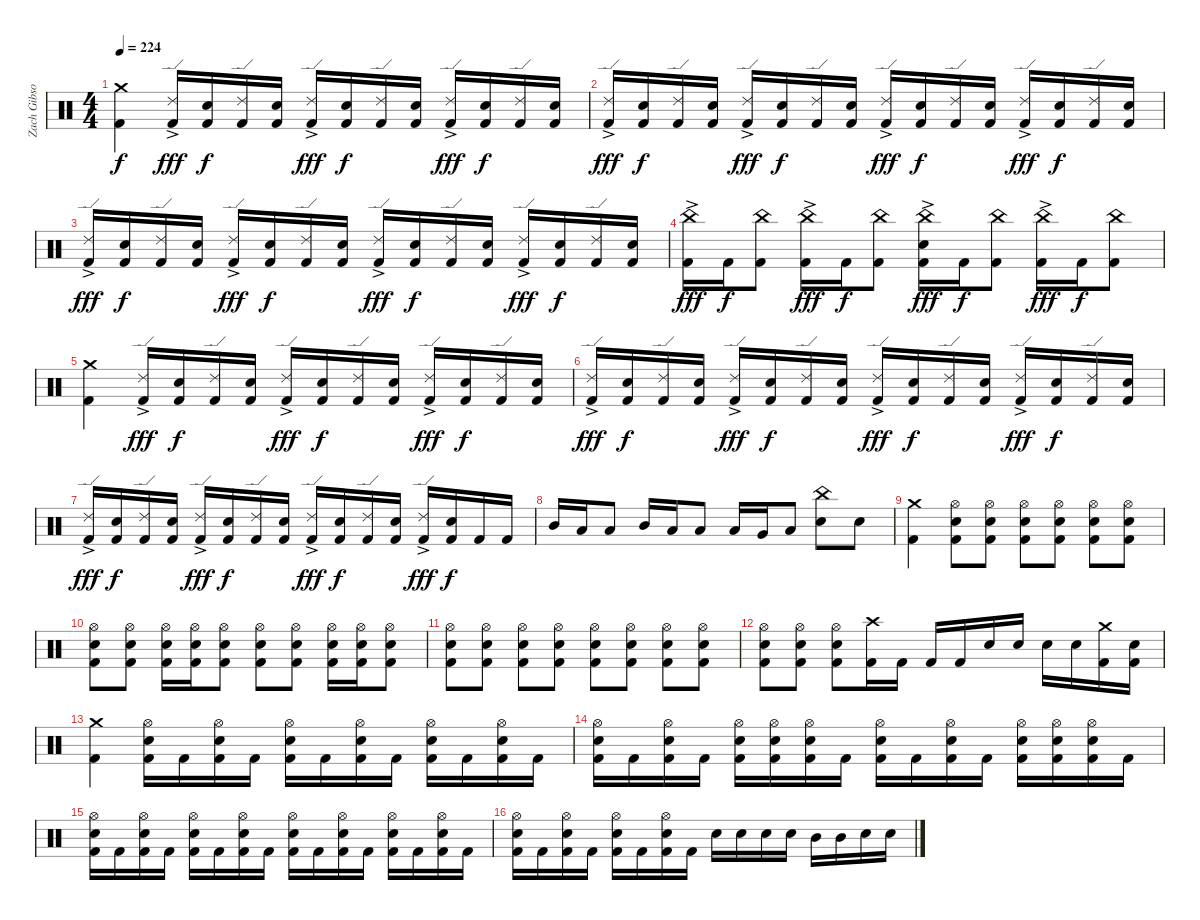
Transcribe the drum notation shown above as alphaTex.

\track ("Zach Gibson (Drums)" "Zach Gibso") {instrument percussion}
\staff {score}
\articulation defaults
\ts (4 4)
\tempo 224
\clef neutral
\ks c
("Crash medium (hit)" "Kick (hit) 2").4{dy f} ("Ride (edge) 2"{ac} "Kick (hit) 2").16{dy fff} ("Kick (hit) 2" "Snare (hit) 2").16{dy f} ("Ride (edge) 2" "Kick (hit) 2").16 ("Kick (hit) 2" "Snare (hit) 2").16 ("Ride (edge) 2"{ac} "Kick (hit) 2").16{dy fff} ("Kick (hit) 2" "Snare (hit) 2").16{dy f} ("Ride (edge) 2" "Kick (hit) 2").16 ("Kick (hit) 2" "Snare (hit) 2").16 ("Ride (edge) 2"{ac} "Kick (hit) 2").16{dy fff} ("Kick (hit) 2" "Snare (hit) 2").16{dy f} ("Ride (edge) 2" "Kick (hit) 2").16 ("Kick (hit) 2" "Snare (hit) 2").16 |
("Ride (edge) 2"{ac} "Kick (hit) 2").16{dy fff} ("Kick (hit) 2" "Snare (hit) 2").16{dy f} ("Ride (edge) 2" "Kick (hit) 2").16 ("Kick (hit) 2" "Snare (hit) 2").16 ("Ride (edge) 2"{ac} "Kick (hit) 2").16{dy fff} ("Kick (hit) 2" "Snare (hit) 2").16{dy f} ("Ride (edge) 2" "Kick (hit) 2").16 ("Kick (hit) 2" "Snare (hit) 2").16 ("Ride (edge) 2"{ac} "Kick (hit) 2").16{dy fff} ("Kick (hit) 2" "Snare (hit) 2").16{dy f} ("Ride (edge) 2" "Kick (hit) 2").16 ("Kick (hit) 2" "Snare (hit) 2").16 ("Ride (edge) 2"{ac} "Kick (hit) 2").16{dy fff} ("Kick (hit) 2" "Snare (hit) 2").16{dy f} ("Ride (edge) 2" "Kick (hit) 2").16 ("Kick (hit) 2" "Snare (hit) 2").16 |
("Ride (edge) 2"{ac} "Kick (hit) 2").16{dy fff} ("Kick (hit) 2" "Snare (hit) 2").16{dy f} ("Ride (edge) 2" "Kick (hit) 2").16 ("Kick (hit) 2" "Snare (hit) 2").16 ("Ride (edge) 2"{ac} "Kick (hit) 2").16{dy fff} ("Kick (hit) 2" "Snare (hit) 2").16{dy f} ("Ride (edge) 2" "Kick (hit) 2").16 ("Kick (hit) 2" "Snare (hit) 2").16 ("Ride (edge) 2"{ac} "Kick (hit) 2").16{dy fff} ("Kick (hit) 2" "Snare (hit) 2").16{dy f} ("Ride (edge) 2" "Kick (hit) 2").16 ("Kick (hit) 2" "Snare (hit) 2").16 ("Ride (edge) 2"{ac} "Kick (hit) 2").16{dy fff} ("Kick (hit) 2" "Snare (hit) 2").16{dy f} ("Ride (edge) 2" "Kick (hit) 2").16 ("Kick (hit) 2" "Snare (hit) 2").16 |
("China (hit)"{ac} "Kick (hit) 2").16{dy fff} "Kick (hit) 2".16{dy f} ("China (hit)" "Kick (hit) 2").8 ("China (hit)"{ac} "Kick (hit) 2").16{dy fff} "Kick (hit) 2".16{dy f} ("China (hit)" "Kick (hit) 2").8 ("China (hit)"{ac} "Snare (hit) 2" "Kick (hit) 2").16{dy fff} "Kick (hit) 2".16{dy f} ("China (hit)" "Kick (hit) 2").8 ("China (hit)"{ac} "Kick (hit) 2").16{dy fff} "Kick (hit) 2".16{dy f} ("China (hit)" "Kick (hit) 2").8 |
("Crash medium (hit)" "Kick (hit) 2").4 ("Ride (edge) 2"{ac} "Kick (hit) 2").16{dy fff} ("Kick (hit) 2" "Snare (hit) 2").16{dy f} ("Ride (edge) 2" "Kick (hit) 2").16 ("Kick (hit) 2" "Snare (hit) 2").16 ("Ride (edge) 2"{ac} "Kick (hit) 2").16{dy fff} ("Kick (hit) 2" "Snare (hit) 2").16{dy f} ("Ride (edge) 2" "Kick (hit) 2").16 ("Kick (hit) 2" "Snare (hit) 2").16 ("Ride (edge) 2"{ac} "Kick (hit) 2").16{dy fff} ("Kick (hit) 2" "Snare (hit) 2").16{dy f} ("Ride (edge) 2" "Kick (hit) 2").16 ("Kick (hit) 2" "Snare (hit) 2").16 |
("Ride (edge) 2"{ac} "Kick (hit) 2").16{dy fff} ("Kick (hit) 2" "Snare (hit) 2").16{dy f} ("Ride (edge) 2" "Kick (hit) 2").16 ("Kick (hit) 2" "Snare (hit) 2").16 ("Ride (edge) 2"{ac} "Kick (hit) 2").16{dy fff} ("Kick (hit) 2" "Snare (hit) 2").16{dy f} ("Ride (edge) 2" "Kick (hit) 2").16 ("Kick (hit) 2" "Snare (hit) 2").16 ("Ride (edge) 2"{ac} "Kick (hit) 2").16{dy fff} ("Kick (hit) 2" "Snare (hit) 2").16{dy f} ("Ride (edge) 2" "Kick (hit) 2").16 ("Kick (hit) 2" "Snare (hit) 2").16 ("Ride (edge) 2"{ac} "Kick (hit) 2").16{dy fff} ("Kick (hit) 2" "Snare (hit) 2").16{dy f} ("Ride (edge) 2" "Kick (hit) 2").16 ("Kick (hit) 2" "Snare (hit) 2").16 |
("Ride (edge) 2"{ac} "Kick (hit) 2").16{dy fff} ("Kick (hit) 2" "Snare (hit) 2").16{dy f} ("Ride (edge) 2" "Kick (hit) 2").16 ("Kick (hit) 2" "Snare (hit) 2").16 ("Ride (edge) 2"{ac} "Kick (hit) 2").16{dy fff} ("Kick (hit) 2" "Snare (hit) 2").16{dy f} ("Ride (edge) 2" "Kick (hit) 2").16 ("Kick (hit) 2" "Snare (hit) 2").16 ("Ride (edge) 2"{ac} "Kick (hit) 2").16{dy fff} ("Kick (hit) 2" "Snare (hit) 2").16{dy f} ("Ride (edge) 2" "Kick (hit) 2").16 ("Kick (hit) 2" "Snare (hit) 2").16 ("Ride (edge) 2"{ac} "Kick (hit) 2").16{dy fff} ("Kick (hit) 2" "Snare (hit) 2").16{dy f} "Kick (hit) 2".16 "Kick (hit) 2".16 |
"Mid Tom (hit)".16 "Low Tom (hit)".16 "Low Floor Tom (hit)".8 "Mid Tom (hit)".16 "Low Tom (hit)".16 "Low Floor Tom (hit)".8 "Low Tom (hit)".16 "Very Low Tom (hit)".16 "Low Floor Tom (hit)".8 ("China (hit)" "Snare (hit) 2").8 "Snare (hit) 2".8 |
("Crash medium (hit)" "Kick (hit) 2").4 ("Hi-Hat (open)" "Kick (hit) 2" "Snare (hit) 2").8 ("Hi-Hat (open)" "Kick (hit) 2" "Snare (hit) 2").8 ("Hi-Hat (open)" "Kick (hit) 2" "Snare (hit) 2").8 ("Hi-Hat (open)" "Kick (hit) 2" "Snare (hit) 2").8 ("Hi-Hat (open)" "Kick (hit) 2" "Snare (hit) 2").8 ("Hi-Hat (open)" "Kick (hit) 2" "Snare (hit) 2").8 |
("Hi-Hat (open)" "Kick (hit) 2" "Snare (hit) 2").8 ("Hi-Hat (open)" "Kick (hit) 2" "Snare (hit) 2").8 ("Hi-Hat (open)" "Kick (hit) 2" "Snare (hit) 2").16 ("Hi-Hat (open)" "Kick (hit) 2" "Snare (hit) 2").16 ("Hi-Hat (open)" "Kick (hit) 2" "Snare (hit) 2").8 ("Hi-Hat (open)" "Kick (hit) 2" "Snare (hit) 2").8 ("Hi-Hat (open)" "Kick (hit) 2" "Snare (hit) 2").8 ("Hi-Hat (open)" "Kick (hit) 2" "Snare (hit) 2").16 ("Hi-Hat (open)" "Kick (hit) 2" "Snare (hit) 2").16 ("Hi-Hat (open)" "Kick (hit) 2" "Snare (hit) 2").8 |
("Hi-Hat (open)" "Kick (hit) 2" "Snare (hit) 2").8 ("Hi-Hat (open)" "Kick (hit) 2" "Snare (hit) 2").8 ("Hi-Hat (open)" "Kick (hit) 2" "Snare (hit) 2").8 ("Hi-Hat (open)" "Kick (hit) 2" "Snare (hit) 2").8 ("Hi-Hat (open)" "Kick (hit) 2" "Snare (hit) 2").8 ("Hi-Hat (open)" "Kick (hit) 2" "Snare (hit) 2").8 ("Hi-Hat (open)" "Kick (hit) 2" "Snare (hit) 2").8 ("Hi-Hat (open)" "Kick (hit) 2" "Snare (hit) 2").8 |
("Hi-Hat (open)" "Kick (hit) 2" "Snare (hit) 2").8 ("Hi-Hat (open)" "Kick (hit) 2" "Snare (hit) 2").8 ("Hi-Hat (open)" "Kick (hit) 2" "Snare (hit) 2").8 ("Crash high (hit)" "Kick (hit) 2").16 "Kick (hit) 2".16 "Kick (hit) 2".16 "Kick (hit) 2".16 "Snare (hit) 2".16 "Snare (hit) 2".16 "Snare (hit) 2".16 "Snare (hit) 2".16 ("Crash medium (hit)" "Kick (hit) 2").16 ("Snare (hit) 2" "Kick (hit) 2").16 |
("Crash medium (hit)" "Kick (hit) 2").4 ("Hi-Hat (open)" "Kick (hit) 2" "Snare (hit) 2").16 "Kick (hit) 2".16 ("Hi-Hat (open)" "Kick (hit) 2" "Snare (hit) 2").16 "Kick (hit) 2".16 ("Hi-Hat (open)" "Kick (hit) 2" "Snare (hit) 2").16 "Kick (hit) 2".16 ("Hi-Hat (open)" "Kick (hit) 2" "Snare (hit) 2").16 "Kick (hit) 2".16 ("Hi-Hat (open)" "Kick (hit) 2" "Snare (hit) 2").16 "Kick (hit) 2".16 ("Hi-Hat (open)" "Kick (hit) 2" "Snare (hit) 2").16 "Kick (hit) 2".16 |
("Hi-Hat (open)" "Kick (hit) 2" "Snare (hit) 2").16 "Kick (hit) 2".16 ("Hi-Hat (open)" "Kick (hit) 2" "Snare (hit) 2").16 "Kick (hit) 2".16 ("Hi-Hat (open)" "Kick (hit) 2" "Snare (hit) 2").16 ("Hi-Hat (open)" "Snare (hit) 2" "Kick (hit) 2").16 ("Hi-Hat (open)" "Kick (hit) 2" "Snare (hit) 2").16 "Kick (hit) 2".16 ("Hi-Hat (open)" "Kick (hit) 2" "Snare (hit) 2").16 "Kick (hit) 2".16 ("Hi-Hat (open)" "Kick (hit) 2" "Snare (hit) 2").16 "Kick (hit) 2".16 ("Hi-Hat (open)" "Kick (hit) 2" "Snare (hit) 2").16 ("Hi-Hat (open)" "Snare (hit) 2" "Kick (hit) 2").16 ("Hi-Hat (open)" "Kick (hit) 2" "Snare (hit) 2").16 "Kick (hit) 2".16 |
("Hi-Hat (open)" "Kick (hit) 2" "Snare (hit) 2").16 "Kick (hit) 2".16 ("Hi-Hat (open)" "Kick (hit) 2" "Snare (hit) 2").16 "Kick (hit) 2".16 ("Hi-Hat (open)" "Kick (hit) 2" "Snare (hit) 2").16 "Kick (hit) 2".16 ("Hi-Hat (open)" "Kick (hit) 2" "Snare (hit) 2").16 "Kick (hit) 2".16 ("Hi-Hat (open)" "Kick (hit) 2" "Snare (hit) 2").16 "Kick (hit) 2".16 ("Hi-Hat (open)" "Kick (hit) 2" "Snare (hit) 2").16 "Kick (hit) 2".16 ("Hi-Hat (open)" "Kick (hit) 2" "Snare (hit) 2").16 "Kick (hit) 2".16 ("Hi-Hat (open)" "Kick (hit) 2" "Snare (hit) 2").16 "Kick (hit) 2".16 |
("Hi-Hat (open)" "Kick (hit) 2" "Snare (hit) 2").16 "Kick (hit) 2".16 ("Hi-Hat (open)" "Kick (hit) 2" "Snare (hit) 2").16 "Kick (hit) 2".16 ("Hi-Hat (open)" "Kick (hit) 2" "Snare (hit) 2").16 "Kick (hit) 2".16 ("Hi-Hat (open)" "Kick (hit) 2" "Snare (hit) 2").16 "Kick (hit) 2".16 "Snare (hit) 2".16 "Snare (hit) 2".16 "Snare (hit) 2".16 "Snare (hit) 2".16 "Mid Tom (hit)".16 "Mid Tom (hit)".16 "Snare (hit) 2".16 "Snare (hit) 2".16
